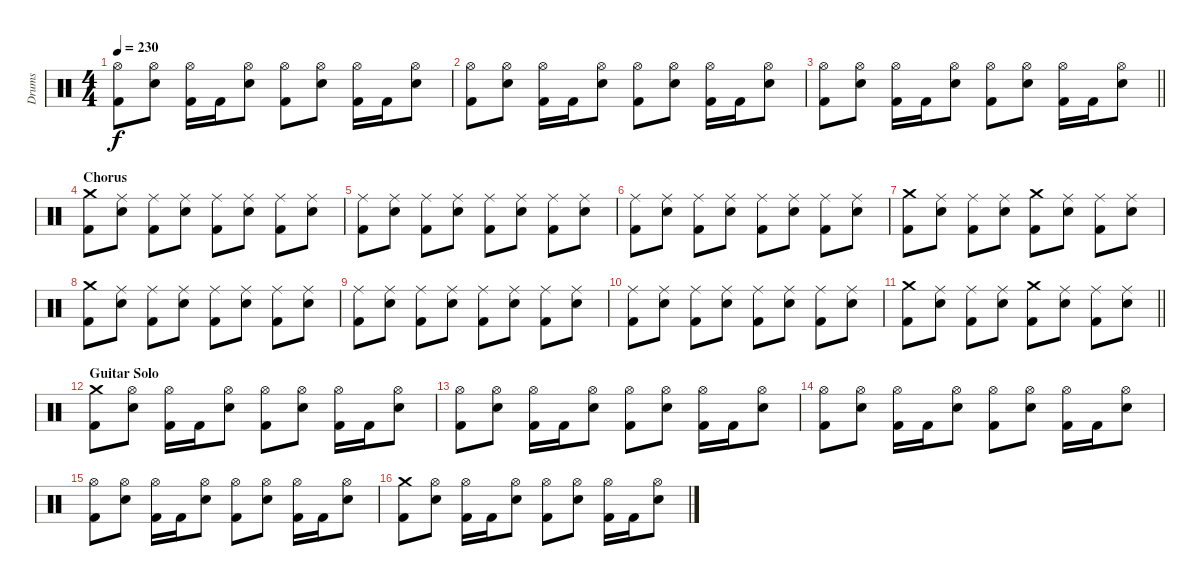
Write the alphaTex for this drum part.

\track ("Drums" "Drums") {instrument percussion}
\staff {score}
\articulation defaults
\ts (4 4)
\tempo 230
\clef neutral
\ks c
("Hi-Hat (open)" "Kick (hit) 2").8{dy f} ("Hi-Hat (open)" "Electric Snare (hit)").8 ("Hi-Hat (open)" "Kick (hit) 2").16 "Kick (hit) 2".16 ("Hi-Hat (open)" "Electric Snare (hit)").8 ("Hi-Hat (open)" "Kick (hit) 2").8 ("Hi-Hat (open)" "Electric Snare (hit)").8 ("Hi-Hat (open)" "Kick (hit) 2").16 "Kick (hit) 2".16 ("Hi-Hat (open)" "Electric Snare (hit)").8 |
("Hi-Hat (open)" "Kick (hit) 2").8 ("Hi-Hat (open)" "Electric Snare (hit)").8 ("Hi-Hat (open)" "Kick (hit) 2").16 "Kick (hit) 2".16 ("Hi-Hat (open)" "Electric Snare (hit)").8 ("Hi-Hat (open)" "Kick (hit) 2").8 ("Hi-Hat (open)" "Electric Snare (hit)").8 ("Hi-Hat (open)" "Kick (hit) 2").16 "Kick (hit) 2".16 ("Hi-Hat (open)" "Electric Snare (hit)").8 |
\barLineRight lightlight
("Hi-Hat (open)" "Kick (hit) 2").8 ("Hi-Hat (open)" "Electric Snare (hit)").8 ("Hi-Hat (open)" "Kick (hit) 2").16 "Kick (hit) 2".16 ("Hi-Hat (open)" "Electric Snare (hit)").8 ("Hi-Hat (open)" "Kick (hit) 2").8 ("Hi-Hat (open)" "Electric Snare (hit)").8 ("Hi-Hat (open)" "Kick (hit) 2").16 "Kick (hit) 2".16 ("Hi-Hat (open)" "Electric Snare (hit)").8 |
\section ("" "Chorus")
("Crash medium (hit)" "Kick (hit) 2").8 ("Ride (middle)" "Electric Snare (hit)").8 ("Ride (middle)" "Kick (hit) 2").8 ("Ride (middle)" "Electric Snare (hit)").8 ("Ride (middle)" "Kick (hit) 2").8 ("Ride (middle)" "Electric Snare (hit)").8 ("Ride (middle)" "Kick (hit) 2").8 ("Ride (middle)" "Electric Snare (hit)").8 |
("Ride (middle)" "Kick (hit) 2").8 ("Ride (middle)" "Electric Snare (hit)").8 ("Ride (middle)" "Kick (hit) 2").8 ("Ride (middle)" "Electric Snare (hit)").8 ("Ride (middle)" "Kick (hit) 2").8 ("Ride (middle)" "Electric Snare (hit)").8 ("Ride (middle)" "Kick (hit) 2").8 ("Ride (middle)" "Electric Snare (hit)").8 |
("Ride (middle)" "Kick (hit) 2").8 ("Ride (middle)" "Electric Snare (hit)").8 ("Ride (middle)" "Kick (hit) 2").8 ("Ride (middle)" "Electric Snare (hit)").8 ("Ride (middle)" "Kick (hit) 2").8 ("Ride (middle)" "Electric Snare (hit)").8 ("Ride (middle)" "Kick (hit) 2").8 ("Ride (middle)" "Electric Snare (hit)").8 |
("Crash medium (hit)" "Kick (hit) 2").8 ("Ride (middle)" "Electric Snare (hit)").8 ("Ride (middle)" "Kick (hit) 2").8 ("Ride (middle)" "Electric Snare (hit)").8 ("Crash medium (hit)" "Kick (hit) 2").8 ("Ride (middle)" "Electric Snare (hit)").8 ("Ride (middle)" "Kick (hit) 2").8 ("Ride (middle)" "Electric Snare (hit)").8 |
("Crash medium (hit)" "Kick (hit) 2").8 ("Ride (middle)" "Electric Snare (hit)").8 ("Ride (middle)" "Kick (hit) 2").8 ("Ride (middle)" "Electric Snare (hit)").8 ("Ride (middle)" "Kick (hit) 2").8 ("Ride (middle)" "Electric Snare (hit)").8 ("Ride (middle)" "Kick (hit) 2").8 ("Ride (middle)" "Electric Snare (hit)").8 |
("Ride (middle)" "Kick (hit) 2").8 ("Ride (middle)" "Electric Snare (hit)").8 ("Ride (middle)" "Kick (hit) 2").8 ("Ride (middle)" "Electric Snare (hit)").8 ("Ride (middle)" "Kick (hit) 2").8 ("Ride (middle)" "Electric Snare (hit)").8 ("Ride (middle)" "Kick (hit) 2").8 ("Ride (middle)" "Electric Snare (hit)").8 |
("Ride (middle)" "Kick (hit) 2").8 ("Ride (middle)" "Electric Snare (hit)").8 ("Ride (middle)" "Kick (hit) 2").8 ("Ride (middle)" "Electric Snare (hit)").8 ("Ride (middle)" "Kick (hit) 2").8 ("Ride (middle)" "Electric Snare (hit)").8 ("Ride (middle)" "Kick (hit) 2").8 ("Ride (middle)" "Electric Snare (hit)").8 |
\barLineRight lightlight
("Crash medium (hit)" "Kick (hit) 2").8 ("Ride (middle)" "Electric Snare (hit)").8 ("Ride (middle)" "Kick (hit) 2").8 ("Ride (middle)" "Electric Snare (hit)").8 ("Crash medium (hit)" "Kick (hit) 2").8 ("Ride (middle)" "Electric Snare (hit)").8 ("Ride (middle)" "Kick (hit) 2").8 ("Ride (middle)" "Electric Snare (hit)").8 |
\section ("" "Guitar Solo")
("Crash medium (hit)" "Kick (hit) 2").8 ("Hi-Hat (open)" "Electric Snare (hit)").8 ("Hi-Hat (open)" "Kick (hit) 2").16 "Kick (hit) 2".16 ("Hi-Hat (open)" "Electric Snare (hit)").8 ("Hi-Hat (open)" "Kick (hit) 2").8 ("Hi-Hat (open)" "Electric Snare (hit)").8 ("Hi-Hat (open)" "Kick (hit) 2").16 "Kick (hit) 2".16 ("Hi-Hat (open)" "Electric Snare (hit)").8 |
("Hi-Hat (open)" "Kick (hit) 2").8 ("Hi-Hat (open)" "Electric Snare (hit)").8 ("Hi-Hat (open)" "Kick (hit) 2").16 "Kick (hit) 2".16 ("Hi-Hat (open)" "Electric Snare (hit)").8 ("Hi-Hat (open)" "Kick (hit) 2").8 ("Hi-Hat (open)" "Electric Snare (hit)").8 ("Hi-Hat (open)" "Kick (hit) 2").16 "Kick (hit) 2".16 ("Hi-Hat (open)" "Electric Snare (hit)").8 |
("Hi-Hat (open)" "Kick (hit) 2").8 ("Hi-Hat (open)" "Electric Snare (hit)").8 ("Hi-Hat (open)" "Kick (hit) 2").16 "Kick (hit) 2".16 ("Hi-Hat (open)" "Electric Snare (hit)").8 ("Hi-Hat (open)" "Kick (hit) 2").8 ("Hi-Hat (open)" "Electric Snare (hit)").8 ("Hi-Hat (open)" "Kick (hit) 2").16 "Kick (hit) 2".16 ("Hi-Hat (open)" "Electric Snare (hit)").8 |
("Hi-Hat (open)" "Kick (hit) 2").8 ("Hi-Hat (open)" "Electric Snare (hit)").8 ("Hi-Hat (open)" "Kick (hit) 2").16 "Kick (hit) 2".16 ("Hi-Hat (open)" "Electric Snare (hit)").8 ("Hi-Hat (open)" "Kick (hit) 2").8 ("Hi-Hat (open)" "Electric Snare (hit)").8 ("Hi-Hat (open)" "Kick (hit) 2").16 "Kick (hit) 2".16 ("Hi-Hat (open)" "Electric Snare (hit)").8 |
("Crash medium (hit)" "Kick (hit) 2").8 ("Hi-Hat (open)" "Electric Snare (hit)").8 ("Hi-Hat (open)" "Kick (hit) 2").16 "Kick (hit) 2".16 ("Hi-Hat (open)" "Electric Snare (hit)").8 ("Hi-Hat (open)" "Kick (hit) 2").8 ("Hi-Hat (open)" "Electric Snare (hit)").8 ("Hi-Hat (open)" "Kick (hit) 2").16 "Kick (hit) 2".16 ("Hi-Hat (open)" "Electric Snare (hit)").8
